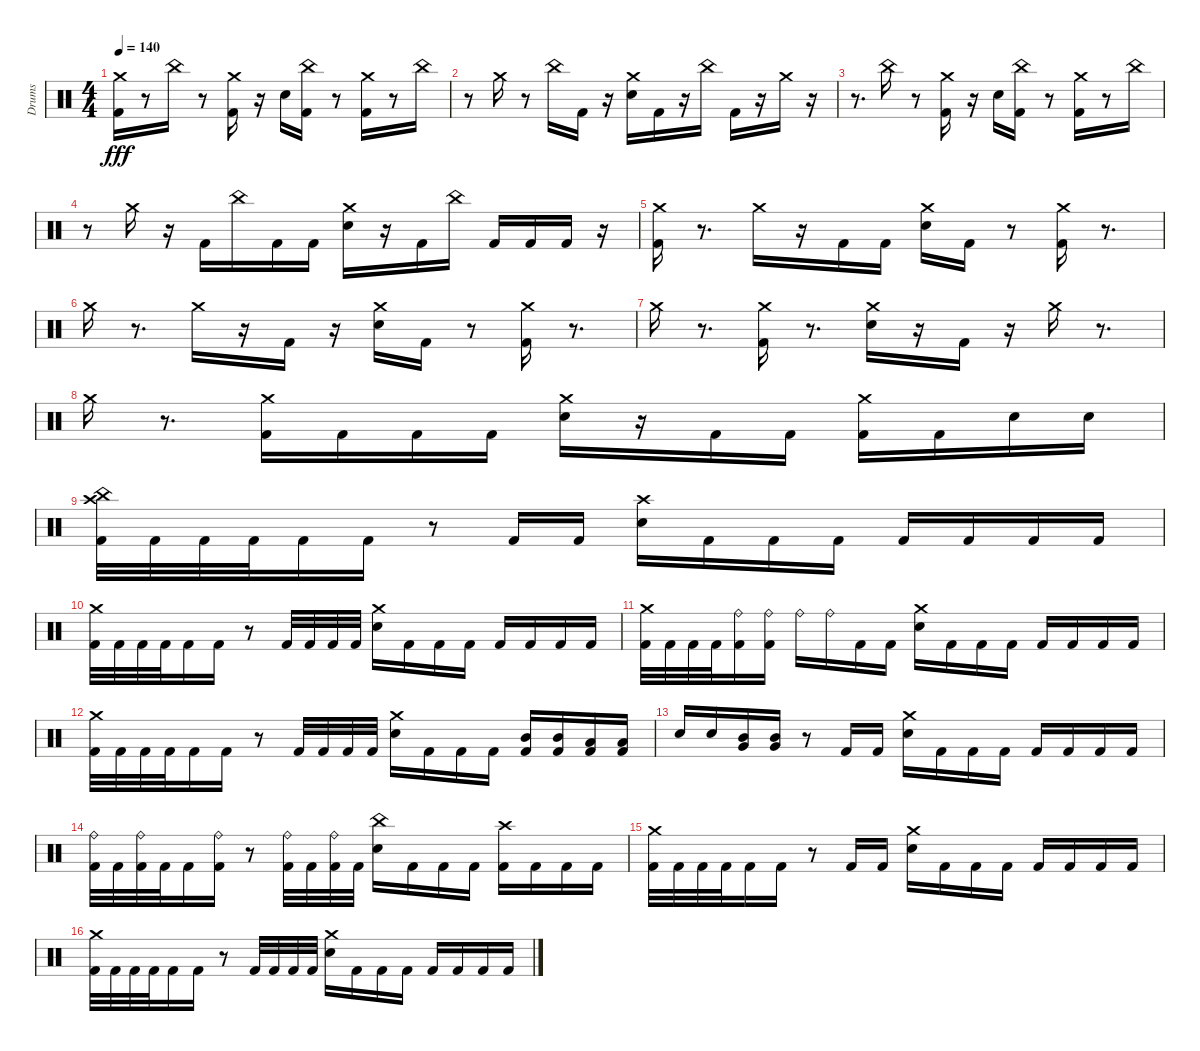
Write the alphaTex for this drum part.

\track ("Drums" "Drums") {instrument percussion}
\staff {score}
\articulation defaults
\ts (4 4)
\tempo 140
\clef neutral
\ks c
("Crash medium (hit)" "Kick (hit) 2").16{dy fff} r.8 "China (hit)".16 r.8 ("Crash medium (hit)" "Kick (hit) 2").16 r.16 "Snare (hit) 2".16 ("Kick (hit) 2" "China (hit)").16 r.8 ("Crash medium (hit)" "Kick (hit) 2").16 r.8 "China (hit)".16 |
r.8 "Crash medium (hit)".16 r.8 "China (hit)".16 "Kick (hit) 2".16 r.16 ("Crash medium (hit)" "Snare (hit) 2").16 "Kick (hit) 2".16 r.16 "China (hit)".16 "Kick (hit) 2".16 r.16 "Crash medium (hit)".16 r.16 |
r.8{d} "China (hit)".16 r.8 ("Crash medium (hit)" "Kick (hit) 2").16 r.16 "Snare (hit) 2".16 ("Kick (hit) 2" "China (hit)").16 r.8 ("Crash medium (hit)" "Kick (hit) 2").16 r.8 "China (hit)".16 |
r.8 "Crash medium (hit)".16 r.16 "Kick (hit) 2".16 "China (hit)".16 "Kick (hit) 2".16 "Kick (hit) 2".16 ("Crash medium (hit)" "Snare (hit) 2").16 r.16 "Kick (hit) 2".16 "China (hit)".16 "Kick (hit) 2".16 "Kick (hit) 2".16 "Kick (hit) 2".16 r.16 |
("Crash medium (hit)" "Kick (hit) 2").16 r.8{d} "Crash medium (hit)".16 r.16 "Kick (hit) 2".16 "Kick (hit) 2".16 ("Crash medium (hit)" "Snare (hit) 2").16 "Kick (hit) 2".16 r.8 ("Crash medium (hit)" "Kick (hit) 2").16 r.8{d} |
"Crash medium (hit)".16 r.8{d} "Crash medium (hit)".16 r.16 "Kick (hit) 2".16 r.16 ("Crash medium (hit)" "Snare (hit) 2").16 "Kick (hit) 2".16 r.8 ("Crash medium (hit)" "Kick (hit) 2").16 r.8{d} |
"Crash medium (hit)".16 r.8{d} ("Crash medium (hit)" "Kick (hit) 2").16 r.8{d} ("Crash medium (hit)" "Snare (hit) 2").16 r.16 "Kick (hit) 2".16 r.16 "Crash medium (hit)".16 r.8{d} |
"Crash medium (hit)".16 r.8{d} ("Crash medium (hit)" "Kick (hit) 2").16 "Kick (hit) 2".16 "Kick (hit) 2".16 "Kick (hit) 2".16 ("Crash medium (hit)" "Snare (hit) 2").16 r.16 "Kick (hit) 2".16 "Kick (hit) 2".16 ("Crash medium (hit)" "Kick (hit) 2").16 "Kick (hit) 2".16 "Snare (hit) 2".16 "Snare (hit) 2".16 |
("Crash high (hit)" "China (hit)" "Kick (hit) 2").32 "Kick (hit) 2".32 "Kick (hit) 2".32 "Kick (hit) 2".32 "Kick (hit) 2".16 "Kick (hit) 2".16 r.8 "Kick (hit) 2".16 "Kick (hit) 2".16 ("Crash high (hit)" "Snare (hit) 2").16 "Kick (hit) 2".16 "Kick (hit) 2".16 "Kick (hit) 2".16 "Kick (hit) 2".16 "Kick (hit) 2".16 "Kick (hit) 2".16 "Kick (hit) 2".16 |
("Crash medium (hit)" "Kick (hit) 2").32 "Kick (hit) 2".32 "Kick (hit) 2".32 "Kick (hit) 2".32 "Kick (hit) 2".16 "Kick (hit) 2".16 r.8 "Kick (hit) 2".32 "Kick (hit) 2".32 "Kick (hit) 2".32 "Kick (hit) 2".32 ("Crash medium (hit)" "Snare (hit) 2").16 "Kick (hit) 2".16 "Kick (hit) 2".16 "Kick (hit) 2".16 "Kick (hit) 2".16 "Kick (hit) 2".16 "Kick (hit) 2".16 "Kick (hit) 2".16 |
("Crash medium (hit)" "Kick (hit) 2").32 "Kick (hit) 2".32 "Kick (hit) 2".32 "Kick (hit) 2".32 ("Kick (hit) 2" "Ride (bell)").16 ("Kick (hit) 2" "Ride (bell)").16 "Ride (bell)".16 "Ride (bell)".16 "Kick (hit) 2".16 "Kick (hit) 2".16 ("Crash medium (hit)" "Snare (hit) 2").16 "Kick (hit) 2".16 "Kick (hit) 2".16 "Kick (hit) 2".16 "Kick (hit) 2".16 "Kick (hit) 2".16 "Kick (hit) 2".16 "Kick (hit) 2".16 |
("Crash medium (hit)" "Kick (hit) 2").32 "Kick (hit) 2".32 "Kick (hit) 2".32 "Kick (hit) 2".32 "Kick (hit) 2".16 "Kick (hit) 2".16 r.8 "Kick (hit) 2".32 "Kick (hit) 2".32 "Kick (hit) 2".32 "Kick (hit) 2".32 ("Crash medium (hit)" "Snare (hit) 2").16 "Kick (hit) 2".16 "Kick (hit) 2".16 "Kick (hit) 2".16 ("Kick (hit) 2" "Mid Tom (hit)").16 ("Kick (hit) 2" "Mid Tom (hit)").16 ("Kick (hit) 2" "Low Tom (hit)").16 ("Kick (hit) 2" "Low Tom (hit)").16 |
"Snare (hit) 2".16 "Snare (hit) 2".16 ("Very Low Tom (hit)" "Mid Tom (hit)").16 ("Very Low Tom (hit)" "Mid Tom (hit)").16 r.8 "Kick (hit) 2".16 "Kick (hit) 2".16 ("Crash medium (hit)" "Snare (hit) 2").16 "Kick (hit) 2".16 "Kick (hit) 2".16 "Kick (hit) 2".16 "Kick (hit) 2".16 "Kick (hit) 2".16 "Kick (hit) 2".16 "Kick (hit) 2".16 |
("Kick (hit) 2" "Ride (bell)").32 "Kick (hit) 2".32 ("Kick (hit) 2" "Ride (bell)").32 "Kick (hit) 2".32 "Kick (hit) 2".16 ("Kick (hit) 2" "Ride (bell)").16 r.8 ("Kick (hit) 2" "Ride (bell)").32 "Kick (hit) 2".32 ("Kick (hit) 2" "Ride (bell)").32 "Kick (hit) 2".32 ("China (hit)" "Snare (hit) 2").16 "Kick (hit) 2".16 "Kick (hit) 2".16 "Kick (hit) 2".16 ("Kick (hit) 2" "Crash high (hit)").16 "Kick (hit) 2".16 "Kick (hit) 2".16 "Kick (hit) 2".16 |
("Crash medium (hit)" "Kick (hit) 2").32 "Kick (hit) 2".32 "Kick (hit) 2".32 "Kick (hit) 2".32 "Kick (hit) 2".16 "Kick (hit) 2".16 r.8 "Kick (hit) 2".16 "Kick (hit) 2".16 ("Crash medium (hit)" "Snare (hit) 2").16 "Kick (hit) 2".16 "Kick (hit) 2".16 "Kick (hit) 2".16 "Kick (hit) 2".16 "Kick (hit) 2".16 "Kick (hit) 2".16 "Kick (hit) 2".16 |
("Crash medium (hit)" "Kick (hit) 2").32 "Kick (hit) 2".32 "Kick (hit) 2".32 "Kick (hit) 2".32 "Kick (hit) 2".16 "Kick (hit) 2".16 r.8 "Kick (hit) 2".32 "Kick (hit) 2".32 "Kick (hit) 2".32 "Kick (hit) 2".32 ("Crash medium (hit)" "Snare (hit) 2").16 "Kick (hit) 2".16 "Kick (hit) 2".16 "Kick (hit) 2".16 "Kick (hit) 2".16 "Kick (hit) 2".16 "Kick (hit) 2".16 "Kick (hit) 2".16
